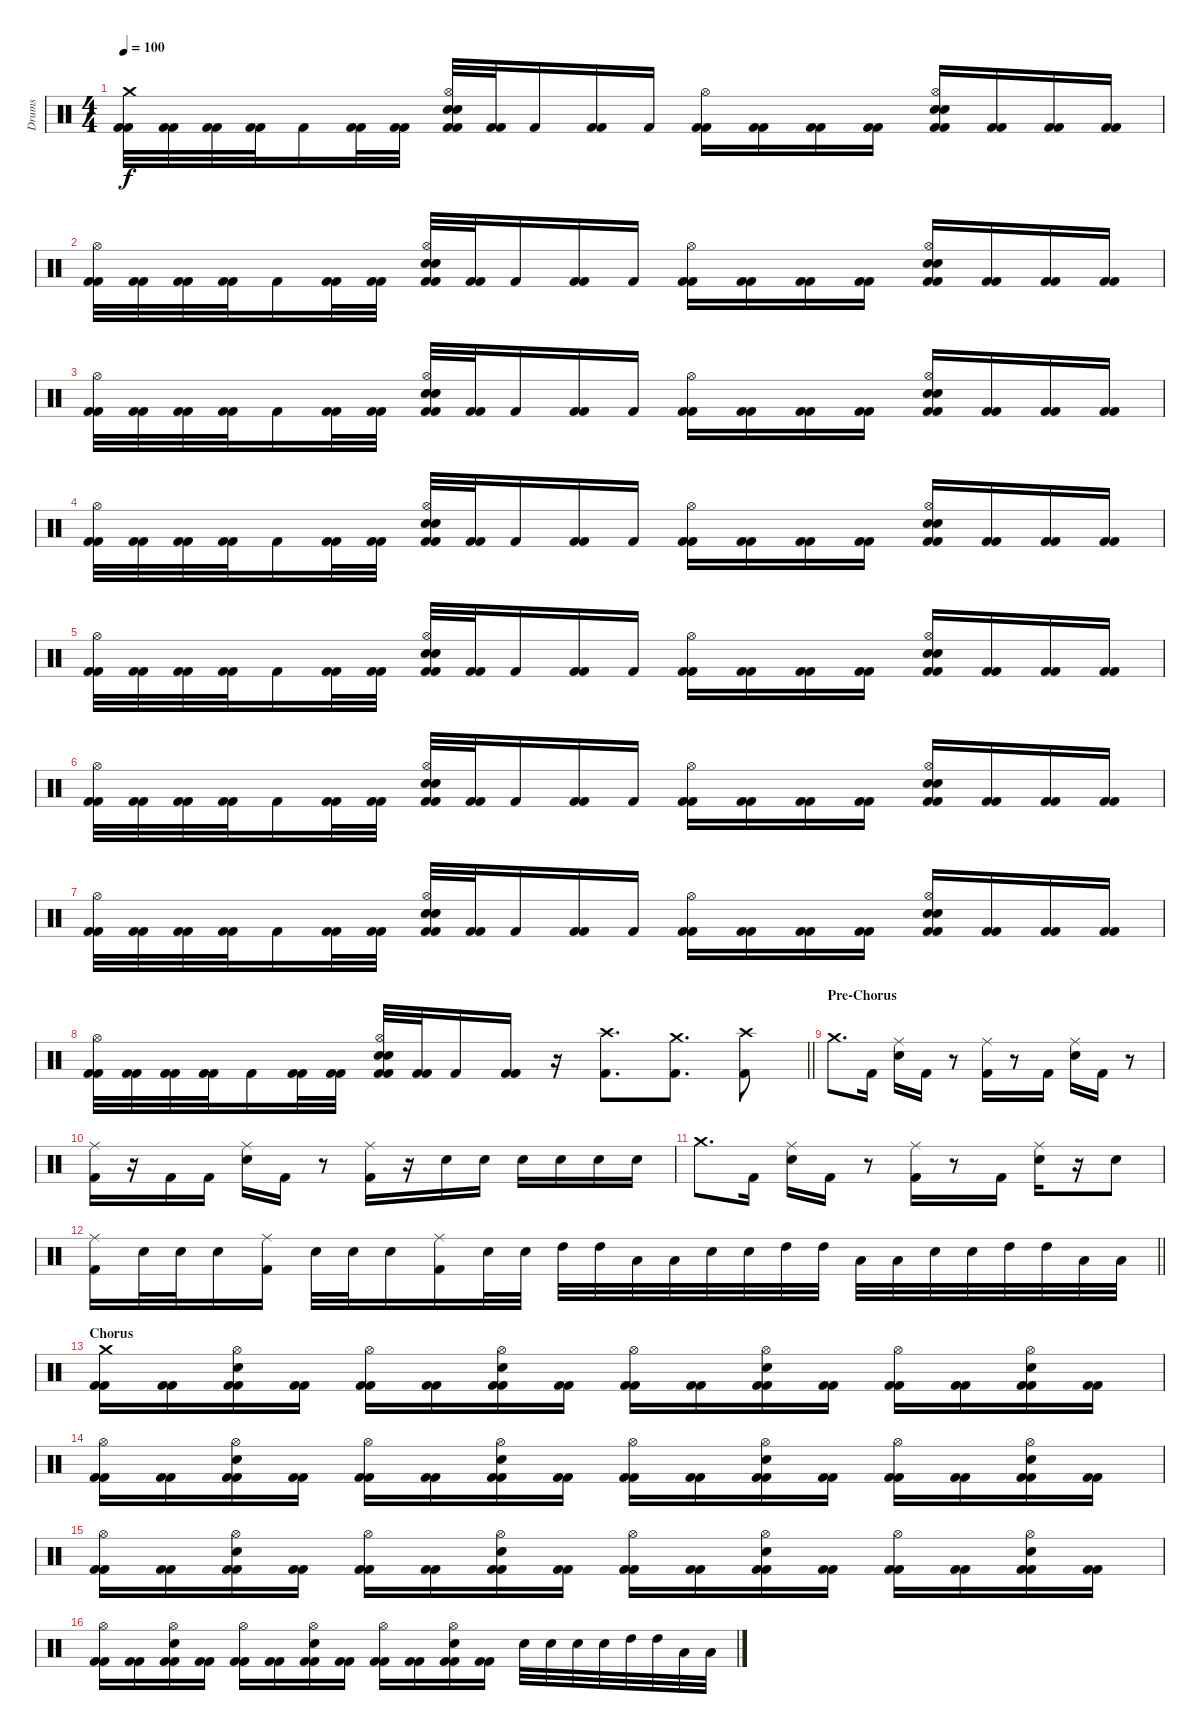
\track ("Drums" "Drums") {instrument percussion}
\staff {score}
\articulation defaults
\ts (4 4)
\tempo 100
\clef neutral
\ks c
("Crash medium (hit)" "Kick (hit) 2" "Kick (hit) 2").32{dy f} ("Kick (hit) 2" "Kick (hit) 2").32 ("Kick (hit) 2" "Kick (hit) 2").32 ("Kick (hit) 2" "Kick (hit) 2").32 "Kick (hit) 2".16 ("Kick (hit) 2" "Kick (hit) 2").32 ("Kick (hit) 2" "Kick (hit) 2").32 ("Hi-Hat (open)" "Electric Snare (hit)" "Electric Snare (hit)" "Kick (hit) 2" "Kick (hit) 2").32 ("Kick (hit) 2" "Kick (hit) 2").32 "Kick (hit) 2".16 ("Kick (hit) 2" "Kick (hit) 2").16 "Kick (hit) 2".16 ("Hi-Hat (open)" "Kick (hit) 2" "Kick (hit) 2").16 ("Kick (hit) 2" "Kick (hit) 2").16 ("Kick (hit) 2" "Kick (hit) 2").16 ("Kick (hit) 2" "Kick (hit) 2").16 ("Hi-Hat (open)" "Electric Snare (hit)" "Electric Snare (hit)" "Kick (hit) 2" "Kick (hit) 2").16 ("Kick (hit) 2" "Kick (hit) 2").16 ("Kick (hit) 2" "Kick (hit) 2").16 ("Kick (hit) 2" "Kick (hit) 2").16 |
("Hi-Hat (open)" "Kick (hit) 2" "Kick (hit) 2").32 ("Kick (hit) 2" "Kick (hit) 2").32 ("Kick (hit) 2" "Kick (hit) 2").32 ("Kick (hit) 2" "Kick (hit) 2").32 "Kick (hit) 2".16 ("Kick (hit) 2" "Kick (hit) 2").32 ("Kick (hit) 2" "Kick (hit) 2").32 ("Hi-Hat (open)" "Electric Snare (hit)" "Electric Snare (hit)" "Kick (hit) 2" "Kick (hit) 2").32 ("Kick (hit) 2" "Kick (hit) 2").32 "Kick (hit) 2".16 ("Kick (hit) 2" "Kick (hit) 2").16 "Kick (hit) 2".16 ("Hi-Hat (open)" "Kick (hit) 2" "Kick (hit) 2").16 ("Kick (hit) 2" "Kick (hit) 2").16 ("Kick (hit) 2" "Kick (hit) 2").16 ("Kick (hit) 2" "Kick (hit) 2").16 ("Hi-Hat (open)" "Electric Snare (hit)" "Electric Snare (hit)" "Kick (hit) 2" "Kick (hit) 2").16 ("Kick (hit) 2" "Kick (hit) 2").16 ("Kick (hit) 2" "Kick (hit) 2").16 ("Kick (hit) 2" "Kick (hit) 2").16 |
("Hi-Hat (open)" "Kick (hit) 2" "Kick (hit) 2").32 ("Kick (hit) 2" "Kick (hit) 2").32 ("Kick (hit) 2" "Kick (hit) 2").32 ("Kick (hit) 2" "Kick (hit) 2").32 "Kick (hit) 2".16 ("Kick (hit) 2" "Kick (hit) 2").32 ("Kick (hit) 2" "Kick (hit) 2").32 ("Hi-Hat (open)" "Electric Snare (hit)" "Electric Snare (hit)" "Kick (hit) 2" "Kick (hit) 2").32 ("Kick (hit) 2" "Kick (hit) 2").32 "Kick (hit) 2".16 ("Kick (hit) 2" "Kick (hit) 2").16 "Kick (hit) 2".16 ("Hi-Hat (open)" "Kick (hit) 2" "Kick (hit) 2").16 ("Kick (hit) 2" "Kick (hit) 2").16 ("Kick (hit) 2" "Kick (hit) 2").16 ("Kick (hit) 2" "Kick (hit) 2").16 ("Hi-Hat (open)" "Electric Snare (hit)" "Electric Snare (hit)" "Kick (hit) 2" "Kick (hit) 2").16 ("Kick (hit) 2" "Kick (hit) 2").16 ("Kick (hit) 2" "Kick (hit) 2").16 ("Kick (hit) 2" "Kick (hit) 2").16 |
("Hi-Hat (open)" "Kick (hit) 2" "Kick (hit) 2").32 ("Kick (hit) 2" "Kick (hit) 2").32 ("Kick (hit) 2" "Kick (hit) 2").32 ("Kick (hit) 2" "Kick (hit) 2").32 "Kick (hit) 2".16 ("Kick (hit) 2" "Kick (hit) 2").32 ("Kick (hit) 2" "Kick (hit) 2").32 ("Hi-Hat (open)" "Electric Snare (hit)" "Electric Snare (hit)" "Kick (hit) 2" "Kick (hit) 2").32 ("Kick (hit) 2" "Kick (hit) 2").32 "Kick (hit) 2".16 ("Kick (hit) 2" "Kick (hit) 2").16 "Kick (hit) 2".16 ("Hi-Hat (open)" "Kick (hit) 2" "Kick (hit) 2").16 ("Kick (hit) 2" "Kick (hit) 2").16 ("Kick (hit) 2" "Kick (hit) 2").16 ("Kick (hit) 2" "Kick (hit) 2").16 ("Hi-Hat (open)" "Electric Snare (hit)" "Electric Snare (hit)" "Kick (hit) 2" "Kick (hit) 2").16 ("Kick (hit) 2" "Kick (hit) 2").16 ("Kick (hit) 2" "Kick (hit) 2").16 ("Kick (hit) 2" "Kick (hit) 2").16 |
("Hi-Hat (open)" "Kick (hit) 2" "Kick (hit) 2").32 ("Kick (hit) 2" "Kick (hit) 2").32 ("Kick (hit) 2" "Kick (hit) 2").32 ("Kick (hit) 2" "Kick (hit) 2").32 "Kick (hit) 2".16 ("Kick (hit) 2" "Kick (hit) 2").32 ("Kick (hit) 2" "Kick (hit) 2").32 ("Hi-Hat (open)" "Electric Snare (hit)" "Electric Snare (hit)" "Kick (hit) 2" "Kick (hit) 2").32 ("Kick (hit) 2" "Kick (hit) 2").32 "Kick (hit) 2".16 ("Kick (hit) 2" "Kick (hit) 2").16 "Kick (hit) 2".16 ("Hi-Hat (open)" "Kick (hit) 2" "Kick (hit) 2").16 ("Kick (hit) 2" "Kick (hit) 2").16 ("Kick (hit) 2" "Kick (hit) 2").16 ("Kick (hit) 2" "Kick (hit) 2").16 ("Hi-Hat (open)" "Electric Snare (hit)" "Electric Snare (hit)" "Kick (hit) 2" "Kick (hit) 2").16 ("Kick (hit) 2" "Kick (hit) 2").16 ("Kick (hit) 2" "Kick (hit) 2").16 ("Kick (hit) 2" "Kick (hit) 2").16 |
("Hi-Hat (open)" "Kick (hit) 2" "Kick (hit) 2").32 ("Kick (hit) 2" "Kick (hit) 2").32 ("Kick (hit) 2" "Kick (hit) 2").32 ("Kick (hit) 2" "Kick (hit) 2").32 "Kick (hit) 2".16 ("Kick (hit) 2" "Kick (hit) 2").32 ("Kick (hit) 2" "Kick (hit) 2").32 ("Hi-Hat (open)" "Electric Snare (hit)" "Electric Snare (hit)" "Kick (hit) 2" "Kick (hit) 2").32 ("Kick (hit) 2" "Kick (hit) 2").32 "Kick (hit) 2".16 ("Kick (hit) 2" "Kick (hit) 2").16 "Kick (hit) 2".16 ("Hi-Hat (open)" "Kick (hit) 2" "Kick (hit) 2").16 ("Kick (hit) 2" "Kick (hit) 2").16 ("Kick (hit) 2" "Kick (hit) 2").16 ("Kick (hit) 2" "Kick (hit) 2").16 ("Hi-Hat (open)" "Electric Snare (hit)" "Electric Snare (hit)" "Kick (hit) 2" "Kick (hit) 2").16 ("Kick (hit) 2" "Kick (hit) 2").16 ("Kick (hit) 2" "Kick (hit) 2").16 ("Kick (hit) 2" "Kick (hit) 2").16 |
("Hi-Hat (open)" "Kick (hit) 2" "Kick (hit) 2").32 ("Kick (hit) 2" "Kick (hit) 2").32 ("Kick (hit) 2" "Kick (hit) 2").32 ("Kick (hit) 2" "Kick (hit) 2").32 "Kick (hit) 2".16 ("Kick (hit) 2" "Kick (hit) 2").32 ("Kick (hit) 2" "Kick (hit) 2").32 ("Hi-Hat (open)" "Electric Snare (hit)" "Electric Snare (hit)" "Kick (hit) 2" "Kick (hit) 2").32 ("Kick (hit) 2" "Kick (hit) 2").32 "Kick (hit) 2".16 ("Kick (hit) 2" "Kick (hit) 2").16 "Kick (hit) 2".16 ("Hi-Hat (open)" "Kick (hit) 2" "Kick (hit) 2").16 ("Kick (hit) 2" "Kick (hit) 2").16 ("Kick (hit) 2" "Kick (hit) 2").16 ("Kick (hit) 2" "Kick (hit) 2").16 ("Hi-Hat (open)" "Electric Snare (hit)" "Electric Snare (hit)" "Kick (hit) 2" "Kick (hit) 2").16 ("Kick (hit) 2" "Kick (hit) 2").16 ("Kick (hit) 2" "Kick (hit) 2").16 ("Kick (hit) 2" "Kick (hit) 2").16 |
\barLineRight lightlight
("Hi-Hat (open)" "Kick (hit) 2" "Kick (hit) 2").32 ("Kick (hit) 2" "Kick (hit) 2").32 ("Kick (hit) 2" "Kick (hit) 2").32 ("Kick (hit) 2" "Kick (hit) 2").32 "Kick (hit) 2".16 ("Kick (hit) 2" "Kick (hit) 2").32 ("Kick (hit) 2" "Kick (hit) 2").32 ("Hi-Hat (open)" "Electric Snare (hit)" "Electric Snare (hit)" "Kick (hit) 2" "Kick (hit) 2").32 ("Kick (hit) 2" "Kick (hit) 2").32 "Kick (hit) 2".16 ("Kick (hit) 2" "Kick (hit) 2").16 r.16 ("Crash high (hit)" "Kick (hit) 2").8{d} ("Crash medium (hit)" "Kick (hit) 2").8{d} ("Crash high (hit)" "Kick (hit) 2").8 |
\section ("" "Pre-Chorus")
"Crash medium (hit)".8{d} "Kick (hit) 2".16 ("Ride (middle)" "Electric Snare (hit)").16 "Kick (hit) 2".16 r.8 ("Ride (middle)" "Kick (hit) 2").16 r.8 "Kick (hit) 2".16 ("Ride (middle)" "Electric Snare (hit)").16 "Kick (hit) 2".16 r.8 |
("Ride (middle)" "Kick (hit) 2").16 r.16 "Kick (hit) 2".16 "Kick (hit) 2".16 ("Ride (middle)" "Electric Snare (hit)").16 "Kick (hit) 2".16 r.8 ("Ride (middle)" "Kick (hit) 2").16 r.16 "Electric Snare (hit)".16 "Snare (hit) 2".16 "Snare (hit) 2".16 "Electric Snare (hit)".16 "Snare (hit) 2".16 "Snare (hit) 2".16 |
"Crash medium (hit)".8{d} "Kick (hit) 2".16 ("Ride (middle)" "Electric Snare (hit)").16 "Kick (hit) 2".16 r.8 ("Ride (middle)" "Kick (hit) 2").16 r.8 "Kick (hit) 2".16 ("Ride (middle)" "Electric Snare (hit)").16 r.16 "Electric Snare (hit)".8 |
\barLineRight lightlight
("Ride (middle)" "Kick (hit) 2").16 "Electric Snare (hit)".32 "Electric Snare (hit)".32 "Electric Snare (hit)".16 ("Ride (middle)" "Kick (hit) 2").16 "Electric Snare (hit)".32 "Electric Snare (hit)".32 "Electric Snare (hit)".16 ("Ride (middle)" "Kick (hit) 2").16 "Electric Snare (hit)".32 "Electric Snare (hit)".32 "High Tom (hit)".32 "High Tom (hit)".32 "Low Tom (hit)".32 "Low Tom (hit)".32 "Electric Snare (hit)".32 "Electric Snare (hit)".32 "High Tom (hit)".32 "High Tom (hit)".32 "Low Tom (hit)".32 "Low Tom (hit)".32 "Electric Snare (hit)".32 "Electric Snare (hit)".32 "High Tom (hit)".32 "High Tom (hit)".32 "Low Tom (hit)".32 "Low Tom (hit)".32 |
\section ("" "Chorus")
("Crash medium (hit)" "Kick (hit) 2" "Kick (hit) 2").16 ("Kick (hit) 2" "Kick (hit) 2").16 ("Hi-Hat (open)" "Electric Snare (hit)" "Kick (hit) 2" "Kick (hit) 2").16 ("Kick (hit) 2" "Kick (hit) 2").16 ("Hi-Hat (open)" "Kick (hit) 2" "Kick (hit) 2").16 ("Kick (hit) 2" "Kick (hit) 2").16 ("Hi-Hat (open)" "Electric Snare (hit)" "Kick (hit) 2" "Kick (hit) 2").16 ("Kick (hit) 2" "Kick (hit) 2").16 ("Hi-Hat (open)" "Kick (hit) 2" "Kick (hit) 2").16 ("Kick (hit) 2" "Kick (hit) 2").16 ("Hi-Hat (open)" "Electric Snare (hit)" "Kick (hit) 2" "Kick (hit) 2").16 ("Kick (hit) 2" "Kick (hit) 2").16 ("Hi-Hat (open)" "Kick (hit) 2" "Kick (hit) 2").16 ("Kick (hit) 2" "Kick (hit) 2").16 ("Hi-Hat (open)" "Electric Snare (hit)" "Kick (hit) 2" "Kick (hit) 2").16 ("Kick (hit) 2" "Kick (hit) 2").16 |
("Hi-Hat (open)" "Kick (hit) 2" "Kick (hit) 2").16 ("Kick (hit) 2" "Kick (hit) 2").16 ("Hi-Hat (open)" "Electric Snare (hit)" "Kick (hit) 2" "Kick (hit) 2").16 ("Kick (hit) 2" "Kick (hit) 2").16 ("Hi-Hat (open)" "Kick (hit) 2" "Kick (hit) 2").16 ("Kick (hit) 2" "Kick (hit) 2").16 ("Hi-Hat (open)" "Electric Snare (hit)" "Kick (hit) 2" "Kick (hit) 2").16 ("Kick (hit) 2" "Kick (hit) 2").16 ("Hi-Hat (open)" "Kick (hit) 2" "Kick (hit) 2").16 ("Kick (hit) 2" "Kick (hit) 2").16 ("Hi-Hat (open)" "Electric Snare (hit)" "Kick (hit) 2" "Kick (hit) 2").16 ("Kick (hit) 2" "Kick (hit) 2").16 ("Hi-Hat (open)" "Kick (hit) 2" "Kick (hit) 2").16 ("Kick (hit) 2" "Kick (hit) 2").16 ("Hi-Hat (open)" "Electric Snare (hit)" "Kick (hit) 2" "Kick (hit) 2").16 ("Kick (hit) 2" "Kick (hit) 2").16 |
("Hi-Hat (open)" "Kick (hit) 2" "Kick (hit) 2").16 ("Kick (hit) 2" "Kick (hit) 2").16 ("Hi-Hat (open)" "Electric Snare (hit)" "Kick (hit) 2" "Kick (hit) 2").16 ("Kick (hit) 2" "Kick (hit) 2").16 ("Hi-Hat (open)" "Kick (hit) 2" "Kick (hit) 2").16 ("Kick (hit) 2" "Kick (hit) 2").16 ("Hi-Hat (open)" "Electric Snare (hit)" "Kick (hit) 2" "Kick (hit) 2").16 ("Kick (hit) 2" "Kick (hit) 2").16 ("Hi-Hat (open)" "Kick (hit) 2" "Kick (hit) 2").16 ("Kick (hit) 2" "Kick (hit) 2").16 ("Hi-Hat (open)" "Electric Snare (hit)" "Kick (hit) 2" "Kick (hit) 2").16 ("Kick (hit) 2" "Kick (hit) 2").16 ("Hi-Hat (open)" "Kick (hit) 2" "Kick (hit) 2").16 ("Kick (hit) 2" "Kick (hit) 2").16 ("Hi-Hat (open)" "Electric Snare (hit)" "Kick (hit) 2" "Kick (hit) 2").16 ("Kick (hit) 2" "Kick (hit) 2").16 |
("Hi-Hat (open)" "Kick (hit) 2" "Kick (hit) 2").16 ("Kick (hit) 2" "Kick (hit) 2").16 ("Hi-Hat (open)" "Electric Snare (hit)" "Kick (hit) 2" "Kick (hit) 2").16 ("Kick (hit) 2" "Kick (hit) 2").16 ("Hi-Hat (open)" "Kick (hit) 2" "Kick (hit) 2").16 ("Kick (hit) 2" "Kick (hit) 2").16 ("Hi-Hat (open)" "Electric Snare (hit)" "Kick (hit) 2" "Kick (hit) 2").16 ("Kick (hit) 2" "Kick (hit) 2").16 ("Hi-Hat (open)" "Kick (hit) 2" "Kick (hit) 2").16 ("Kick (hit) 2" "Kick (hit) 2").16 ("Hi-Hat (open)" "Electric Snare (hit)" "Kick (hit) 2" "Kick (hit) 2").16 ("Kick (hit) 2" "Kick (hit) 2").16 "Electric Snare (hit)".32 "Electric Snare (hit)".32 "Electric Snare (hit)".32 "Electric Snare (hit)".32 "High Tom (hit)".32 "High Tom (hit)".32 "Low Tom (hit)".32 "Low Tom (hit)".32
